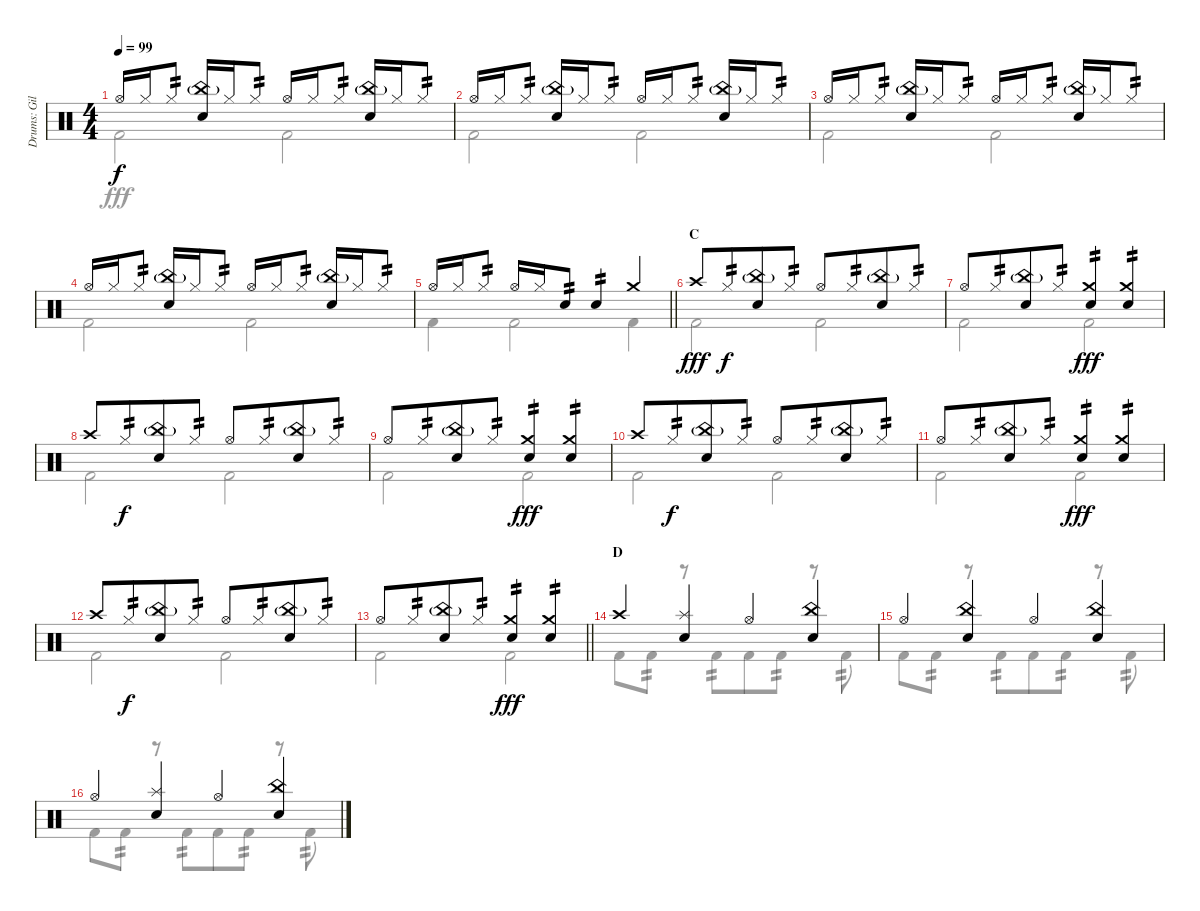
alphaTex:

\track ("Drums: Gil" "Drums: Gil") {instrument percussion}
\staff {score}
\articulation defaults
\voice
\ts (4 4)
\tempo 99
\clef neutral
\ks c "Hi-Hat (open)".16{dy f} "Hi-Hat (closed)".16 "Hi-Hat (closed)".8{tp 2}
("China (hit)"{g} "Snare (hit) 2").16 "Hi-Hat (closed)".16 "Hi-Hat (closed)".8{tp 2} "Hi-Hat (open)".16 "Hi-Hat (closed)".16 "Hi-Hat (closed)".8{tp 2} ("China (hit)"{g} "Snare (hit) 2").16 "Hi-Hat (closed)".16 "Hi-Hat (closed)".8{tp 2} |
"Hi-Hat (open)".16 "Hi-Hat (closed)".16 "Hi-Hat (closed)".8{tp 2} ("China (hit)"{g} "Snare (hit) 2").16 "Hi-Hat (closed)".16 "Hi-Hat (closed)".8{tp 2} "Hi-Hat (open)".16 "Hi-Hat (closed)".16 "Hi-Hat (closed)".8{tp 2} ("China (hit)"{g} "Snare (hit) 2").16 "Hi-Hat (closed)".16 "Hi-Hat (closed)".8{tp 2} |
"Hi-Hat (open)".16 "Hi-Hat (closed)".16 "Hi-Hat (closed)".8{tp 2} ("China (hit)"{g} "Snare (hit) 2").16 "Hi-Hat (closed)".16 "Hi-Hat (closed)".8{tp 2} "Hi-Hat (open)".16 "Hi-Hat (closed)".16 "Hi-Hat (closed)".8{tp 2} ("China (hit)"{g} "Snare (hit) 2").16 "Hi-Hat (closed)".16 "Hi-Hat (closed)".8{tp 2} |
"Hi-Hat (open)".16 "Hi-Hat (closed)".16 "Hi-Hat (closed)".8{tp 2} ("China (hit)"{g} "Snare (hit) 2").16 "Hi-Hat (closed)".16 "Hi-Hat (closed)".8{tp 2} "Hi-Hat (open)".16 "Hi-Hat (closed)".16 "Hi-Hat (closed)".8{tp 2} ("China (hit)"{g} "Snare (hit) 2").16 "Hi-Hat (closed)".16 "Hi-Hat (closed)".8{tp 2} |
\barLineRight lightlight "Hi-Hat (open)".16 "Hi-Hat (closed)".16 "Hi-Hat (closed)".8{tp 2} "Hi-Hat (open)".16 "Hi-Hat (closed)".16 "Snare (hit) 2".8{tp 2} "Snare (hit) 2".4{tp 2} "Crash medium (hit)".4
|
\section ("" "C")
"Crash high (hit)".8{dy fff} "Hi-Hat (closed)".8{tp 2 dy f beam merge} ("China (hit)"{g} "Snare (hit) 2").8 "Hi-Hat (closed)".8{tp 2} "Hi-Hat (open)".8 "Hi-Hat (closed)".8{tp 2 beam merge} ("China (hit)"{g} "Snare (hit) 2").8 "Hi-Hat (closed)".8{tp 2} |
"Hi-Hat (open)".8 "Hi-Hat (closed)".8{tp 2 beam merge} ("China (hit)"{g} "Snare (hit) 2").8 "Hi-Hat (closed)".8{tp 2} ("Crash medium (hit)" "Snare (hit) 2").4{tp 2 dy fff} ("Crash medium (hit)" "Snare (hit) 2").4{tp 2} |
"Crash high (hit)".8 "Hi-Hat (closed)".8{tp 2 dy f beam merge} ("China (hit)"{g} "Snare (hit) 2").8 "Hi-Hat (closed)".8{tp 2} "Hi-Hat (open)".8 "Hi-Hat (closed)".8{tp 2 beam merge} ("China (hit)"{g} "Snare (hit) 2").8 "Hi-Hat (closed)".8{tp 2} |
"Hi-Hat (open)".8 "Hi-Hat (closed)".8{tp 2 beam merge} ("China (hit)"{g} "Snare (hit) 2").8 "Hi-Hat (closed)".8{tp 2} ("Crash medium (hit)" "Snare (hit) 2").4{tp 2 dy fff} ("Crash medium (hit)" "Snare (hit) 2").4{tp 2} |
"Crash high (hit)".8 "Hi-Hat (closed)".8{tp 2 dy f beam merge} ("China (hit)"{g} "Snare (hit) 2").8 "Hi-Hat (closed)".8{tp 2} "Hi-Hat (open)".8 "Hi-Hat (closed)".8{tp 2 beam merge} ("China (hit)"{g} "Snare (hit) 2").8 "Hi-Hat (closed)".8{tp 2} |
"Hi-Hat (open)".8 "Hi-Hat (closed)".8{tp 2 beam merge} ("China (hit)"{g} "Snare (hit) 2").8 "Hi-Hat (closed)".8{tp 2} ("Crash medium (hit)" "Snare (hit) 2").4{tp 2 dy fff} ("Crash medium (hit)" "Snare (hit) 2").4{tp 2} |
"Crash high (hit)".8 "Hi-Hat (closed)".8{tp 2 dy f beam merge} ("China (hit)"{g} "Snare (hit) 2").8 "Hi-Hat (closed)".8{tp 2} "Hi-Hat (open)".8 "Hi-Hat (closed)".8{tp 2 beam merge} ("China (hit)"{g} "Snare (hit) 2").8 "Hi-Hat (closed)".8{tp 2} |
\barLineRight lightlight "Hi-Hat (open)".8 "Hi-Hat (closed)".8{tp 2 beam merge}
("China (hit)"{g} "Snare (hit) 2").8 "Hi-Hat (closed)".8{tp 2} ("Crash medium (hit)" "Snare (hit) 2").4{tp 2 dy fff} ("Crash medium (hit)" "Snare (hit) 2").4{tp 2} |
\section ("" "D")
"Crash high (hit)".4 ("Splash (hit)" "Snare (hit) 2").4 "Hi-Hat (open)".4 ("China (hit)" "Snare (hit) 2").4 |
"Hi-Hat (open)".4 ("China (hit)" "Snare (hit) 2").4 "Hi-Hat (open)".4 ("China (hit)" "Snare (hit) 2").4 |
"Hi-Hat (open)".4 ("Splash (hit)" "Snare (hit) 2").4 "Hi-Hat (open)".4 ("China (hit)" "Snare (hit) 2").4
\voice
\clef neutral
\ottava regular
\simile none
\ks c "Kick (hit) 2".2{dy fff} "Kick (hit) 2".2
|
"Kick (hit) 2".2 "Kick (hit) 2".2 |
"Kick (hit) 2".2 "Kick (hit) 2".2 |
"Kick (hit) 2".2 "Kick (hit) 2".2 |
\barLineRight lightlight "Kick (hit) 2".4 "Kick (hit) 2".2 "Kick (hit) 2".4
|
"Kick (hit) 2".2 "Kick (hit) 2".2 |
"Kick (hit) 2".2 "Kick (hit) 2".2 |
"Kick (hit) 2".2 "Kick (hit) 2".2 |
"Kick (hit) 2".2 "Kick (hit) 2".2 |
"Kick (hit) 2".2 "Kick (hit) 2".2 |
"Kick (hit) 2".2 "Kick (hit) 2".2 |
"Kick (hit) 2".2 "Kick (hit) 2".2 |
\barLineRight lightlight "Kick (hit) 2".2 "Kick (hit) 2".2
|
"Kick (hit) 2".8 "Kick (hit) 2".8{tp 2} r.8 "Kick (hit) 2".8{tp 2 beam merge} "Kick (hit) 2".8 "Kick (hit) 2".8{tp 2} r.8 "Kick (hit) 2".8{tp 2} |
"Kick (hit) 2".8 "Kick (hit) 2".8{tp 2} r.8 "Kick (hit) 2".8{tp 2 beam merge} "Kick (hit) 2".8 "Kick (hit) 2".8{tp 2} r.8 "Kick (hit) 2".8{tp 2} |
"Kick (hit) 2".8 "Kick (hit) 2".8{tp 2} r.8 "Kick (hit) 2".8{tp 2 beam merge} "Kick (hit) 2".8 "Kick (hit) 2".8{tp 2} r.8 "Kick (hit) 2".8{tp 2}
